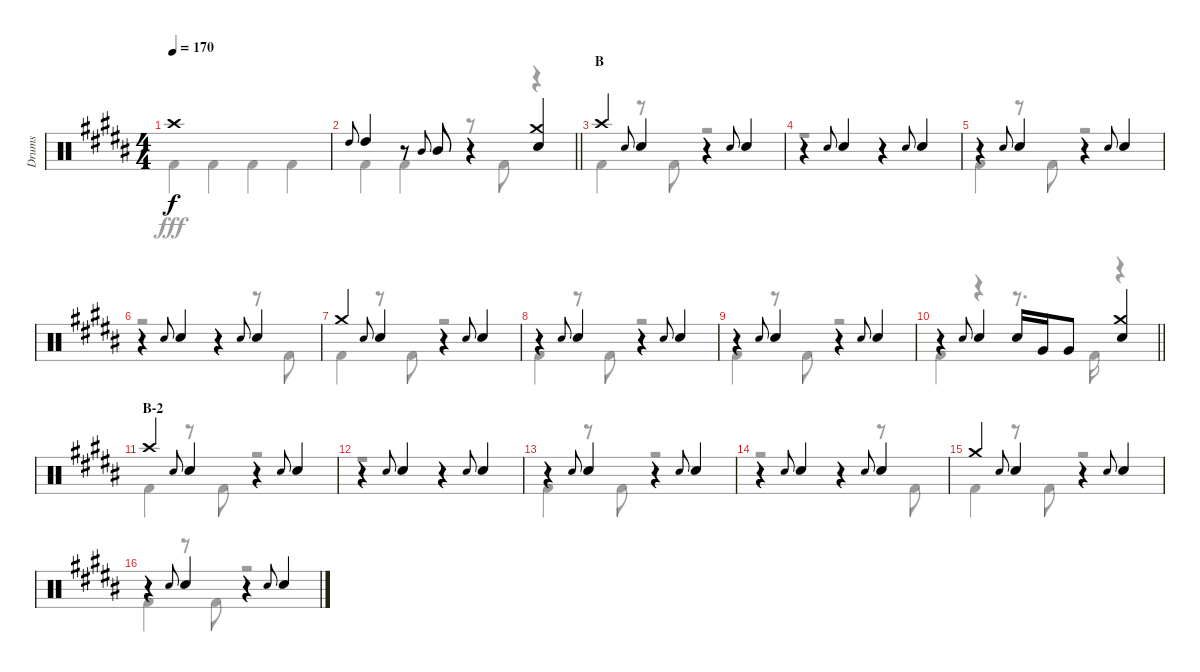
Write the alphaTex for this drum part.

\track ("Drums" "Drums") {instrument percussion}
\staff {score}
\articulation defaults
\voice
\ts (4 4)
\tempo 170
\clef neutral
\ks b "Crash high (hit)".1{dy f}
|
\barLineRight lightlight "High Tom (hit)".8{gr onbeat} "High Tom (hit)".4
r.8 "Mid Tom (hit)".8{gr onbeat} "Mid Tom (hit)".8 r.4 ("Crash medium (hit)" "Snare (hit) 2").4 |
\section ("" "B")
"Crash high (hit)".4 "Snare (hit) 2".8{gr onbeat} "Snare (hit) 2".4 r.4 "Snare (hit) 2".8{gr onbeat} "Snare (hit) 2".4 |
r.4 "Snare (hit) 2".8{gr onbeat} "Snare (hit) 2".4 r.4 "Snare (hit) 2".8{gr onbeat} "Snare (hit) 2".4 |
r.4 "Snare (hit) 2".8{gr onbeat} "Snare (hit) 2".4 r.4 "Snare (hit) 2".8{gr onbeat} "Snare (hit) 2".4 |
r.4 "Snare (hit) 2".8{gr onbeat} "Snare (hit) 2".4 r.4 "Snare (hit) 2".8{gr onbeat} "Snare (hit) 2".4 |
"Crash medium (hit)".4 "Snare (hit) 2".8{gr onbeat} "Snare (hit) 2".4 r.4 "Snare (hit) 2".8{gr onbeat} "Snare (hit) 2".4 |
r.4 "Snare (hit) 2".8{gr onbeat} "Snare (hit) 2".4 r.4 "Snare (hit) 2".8{gr onbeat} "Snare (hit) 2".4 |
r.4 "Snare (hit) 2".8{gr onbeat} "Snare (hit) 2".4 r.4 "Snare (hit) 2".8{gr onbeat} "Snare (hit) 2".4 |
\barLineRight lightlight
r.4 "Snare (hit) 2".8{gr onbeat} "Snare (hit) 2".4 "Snare (hit) 2".16 "Very Low Tom (hit)".16 "Very Low Tom (hit)".8 ("Crash medium (hit)" "Snare (hit) 2").4 |
\section ("" "B-2")
"Crash high (hit)".4 "Snare (hit) 2".8{gr onbeat} "Snare (hit) 2".4 r.4 "Snare (hit) 2".8{gr onbeat} "Snare (hit) 2".4 |
r.4 "Snare (hit) 2".8{gr onbeat} "Snare (hit) 2".4 r.4 "Snare (hit) 2".8{gr onbeat} "Snare (hit) 2".4 |
r.4 "Snare (hit) 2".8{gr onbeat} "Snare (hit) 2".4 r.4 "Snare (hit) 2".8{gr onbeat} "Snare (hit) 2".4 |
r.4 "Snare (hit) 2".8{gr onbeat} "Snare (hit) 2".4 r.4 "Snare (hit) 2".8{gr onbeat} "Snare (hit) 2".4 |
"Crash medium (hit)".4 "Snare (hit) 2".8{gr onbeat} "Snare (hit) 2".4 r.4 "Snare (hit) 2".8{gr onbeat} "Snare (hit) 2".4 |
r.4 "Snare (hit) 2".8{gr onbeat} "Snare (hit) 2".4 r.4 "Snare (hit) 2".8{gr onbeat} "Snare (hit) 2".4
\voice
\clef neutral
\ottava regular
\simile none
\ks b "Kick (hit) 2".4{dy fff} "Kick (hit) 2".4 "Kick (hit) 2".4 "Kick (hit) 2".4
|
\barLineRight lightlight "Kick (hit) 2".4 "Kick (hit) 2".4
r.8 "Kick (hit) 2".8 r.4 |
"Kick (hit) 2".4 r.8 "Kick (hit) 2".8 r.2 |
r.1 |
"Kick (hit) 2".4 r.8 "Kick (hit) 2".8 r.2 |
r.2 r.4 r.8 "Kick (hit) 2".8 |
"Kick (hit) 2".4 r.8 "Kick (hit) 2".8 r.2 |
"Kick (hit) 2".4 r.8 "Kick (hit) 2".8 r.2 |
"Kick (hit) 2".4 r.8 "Kick (hit) 2".8 r.2 |
\barLineRight lightlight "Kick (hit) 2".4
r.4 r.8{d} "Kick (hit) 2".16 r.4 |
"Kick (hit) 2".4 r.8 "Kick (hit) 2".8 r.2 |
r.1 |
"Kick (hit) 2".4 r.8 "Kick (hit) 2".8 r.2 |
r.2 r.4 r.8 "Kick (hit) 2".8 |
"Kick (hit) 2".4 r.8 "Kick (hit) 2".8 r.2 |
"Kick (hit) 2".4 r.8 "Kick (hit) 2".8 r.2
